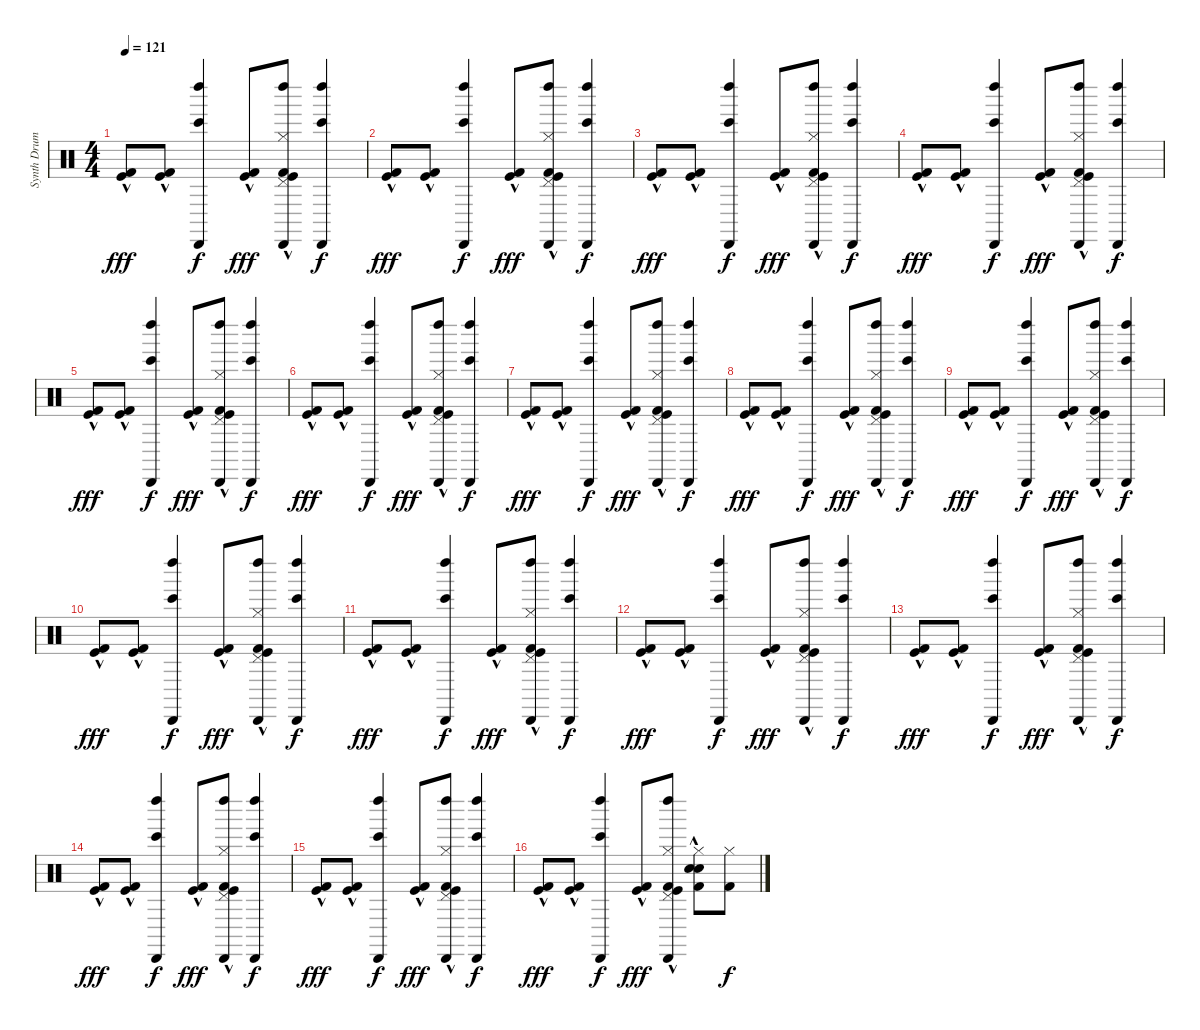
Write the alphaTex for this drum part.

\track ("Synth Drums" "Synth Drum") {instrument percussion}
\staff {score}
\articulation defaults
\ts (4 4)
\tempo 121
\clef neutral
\ks c
("Kick (hit)"{hac} "Kick (hit) 2"{hac}).8{dy fff} ("Kick (hit)"{hac} "Kick (hit) 2"{hac}).8 ("Bongo High (hit)" "Left Maraca (hit)" "Cabasa (hit)").4{dy f} ("Kick (hit)"{hac} "Kick (hit) 2"{hac}).8{dy fff} ("Hi-Hat (closed)" "Pedal Hi-Hat (hit)" "Left Maraca (hit)"{hac} "Cabasa (hit)"{hac} "Kick (hit)"{hac} "Kick (hit) 2"{hac}).8 ("Bongo High (hit)" "Left Maraca (hit)" "Cabasa (hit)").4{dy f} |
("Kick (hit)"{hac} "Kick (hit) 2"{hac}).8{dy fff} ("Kick (hit)"{hac} "Kick (hit) 2"{hac}).8 ("Bongo High (hit)" "Left Maraca (hit)" "Cabasa (hit)").4{dy f} ("Kick (hit)"{hac} "Kick (hit) 2"{hac}).8{dy fff} ("Hi-Hat (closed)" "Pedal Hi-Hat (hit)" "Left Maraca (hit)"{hac} "Cabasa (hit)"{hac} "Kick (hit)"{hac} "Kick (hit) 2"{hac}).8 ("Bongo High (hit)" "Left Maraca (hit)" "Cabasa (hit)").4{dy f} |
("Kick (hit)"{hac} "Kick (hit) 2"{hac}).8{dy fff} ("Kick (hit)"{hac} "Kick (hit) 2"{hac}).8 ("Bongo High (hit)" "Left Maraca (hit)" "Cabasa (hit)").4{dy f} ("Kick (hit)"{hac} "Kick (hit) 2"{hac}).8{dy fff} ("Hi-Hat (closed)" "Pedal Hi-Hat (hit)" "Left Maraca (hit)"{hac} "Cabasa (hit)"{hac} "Kick (hit)"{hac} "Kick (hit) 2"{hac}).8 ("Bongo High (hit)" "Left Maraca (hit)" "Cabasa (hit)").4{dy f} |
("Kick (hit)"{hac} "Kick (hit) 2"{hac}).8{dy fff} ("Kick (hit)"{hac} "Kick (hit) 2"{hac}).8 ("Bongo High (hit)" "Left Maraca (hit)" "Cabasa (hit)").4{dy f} ("Kick (hit)"{hac} "Kick (hit) 2"{hac}).8{dy fff} ("Hi-Hat (closed)" "Pedal Hi-Hat (hit)" "Left Maraca (hit)"{hac} "Cabasa (hit)"{hac} "Kick (hit)"{hac} "Kick (hit) 2"{hac}).8 ("Bongo High (hit)" "Left Maraca (hit)" "Cabasa (hit)").4{dy f} |
("Kick (hit)"{hac} "Kick (hit) 2"{hac}).8{dy fff} ("Kick (hit)"{hac} "Kick (hit) 2"{hac}).8 ("Bongo High (hit)" "Left Maraca (hit)" "Cabasa (hit)").4{dy f} ("Kick (hit)"{hac} "Kick (hit) 2"{hac}).8{dy fff} ("Hi-Hat (closed)" "Pedal Hi-Hat (hit)" "Left Maraca (hit)"{hac} "Cabasa (hit)"{hac} "Kick (hit)"{hac} "Kick (hit) 2"{hac}).8 ("Bongo High (hit)" "Left Maraca (hit)" "Cabasa (hit)").4{dy f} |
("Kick (hit)"{hac} "Kick (hit) 2"{hac}).8{dy fff} ("Kick (hit)"{hac} "Kick (hit) 2"{hac}).8 ("Bongo High (hit)" "Left Maraca (hit)" "Cabasa (hit)").4{dy f} ("Kick (hit)"{hac} "Kick (hit) 2"{hac}).8{dy fff} ("Hi-Hat (closed)" "Pedal Hi-Hat (hit)" "Left Maraca (hit)"{hac} "Cabasa (hit)"{hac} "Kick (hit)"{hac} "Kick (hit) 2"{hac}).8 ("Bongo High (hit)" "Left Maraca (hit)" "Cabasa (hit)").4{dy f} |
("Kick (hit)"{hac} "Kick (hit) 2"{hac}).8{dy fff} ("Kick (hit)"{hac} "Kick (hit) 2"{hac}).8 ("Bongo High (hit)" "Left Maraca (hit)" "Cabasa (hit)").4{dy f} ("Kick (hit)"{hac} "Kick (hit) 2"{hac}).8{dy fff} ("Hi-Hat (closed)" "Pedal Hi-Hat (hit)" "Left Maraca (hit)"{hac} "Cabasa (hit)"{hac} "Kick (hit)"{hac} "Kick (hit) 2"{hac}).8 ("Bongo High (hit)" "Left Maraca (hit)" "Cabasa (hit)").4{dy f} |
("Kick (hit)"{hac} "Kick (hit) 2"{hac}).8{dy fff} ("Kick (hit)"{hac} "Kick (hit) 2"{hac}).8 ("Bongo High (hit)" "Left Maraca (hit)" "Cabasa (hit)").4{dy f} ("Kick (hit)"{hac} "Kick (hit) 2"{hac}).8{dy fff} ("Hi-Hat (closed)" "Pedal Hi-Hat (hit)" "Left Maraca (hit)"{hac} "Cabasa (hit)"{hac} "Kick (hit)"{hac} "Kick (hit) 2"{hac}).8 ("Bongo High (hit)" "Left Maraca (hit)" "Cabasa (hit)").4{dy f} |
("Kick (hit)"{hac} "Kick (hit) 2"{hac}).8{dy fff} ("Kick (hit)"{hac} "Kick (hit) 2"{hac}).8 ("Bongo High (hit)" "Left Maraca (hit)" "Cabasa (hit)").4{dy f} ("Kick (hit)"{hac} "Kick (hit) 2"{hac}).8{dy fff} ("Hi-Hat (closed)" "Pedal Hi-Hat (hit)" "Left Maraca (hit)"{hac} "Cabasa (hit)"{hac} "Kick (hit)"{hac} "Kick (hit) 2"{hac}).8 ("Bongo High (hit)" "Left Maraca (hit)" "Cabasa (hit)").4{dy f} |
("Kick (hit)"{hac} "Kick (hit) 2"{hac}).8{dy fff} ("Kick (hit)"{hac} "Kick (hit) 2"{hac}).8 ("Bongo High (hit)" "Left Maraca (hit)" "Cabasa (hit)").4{dy f} ("Kick (hit)"{hac} "Kick (hit) 2"{hac}).8{dy fff} ("Hi-Hat (closed)" "Pedal Hi-Hat (hit)" "Left Maraca (hit)"{hac} "Cabasa (hit)"{hac} "Kick (hit)"{hac} "Kick (hit) 2"{hac}).8 ("Bongo High (hit)" "Left Maraca (hit)" "Cabasa (hit)").4{dy f} |
("Kick (hit)"{hac} "Kick (hit) 2"{hac}).8{dy fff} ("Kick (hit)"{hac} "Kick (hit) 2"{hac}).8 ("Bongo High (hit)" "Left Maraca (hit)" "Cabasa (hit)").4{dy f} ("Kick (hit)"{hac} "Kick (hit) 2"{hac}).8{dy fff} ("Hi-Hat (closed)" "Pedal Hi-Hat (hit)" "Left Maraca (hit)"{hac} "Cabasa (hit)"{hac} "Kick (hit)"{hac} "Kick (hit) 2"{hac}).8 ("Bongo High (hit)" "Left Maraca (hit)" "Cabasa (hit)").4{dy f} |
("Kick (hit)"{hac} "Kick (hit) 2"{hac}).8{dy fff} ("Kick (hit)"{hac} "Kick (hit) 2"{hac}).8 ("Bongo High (hit)" "Left Maraca (hit)" "Cabasa (hit)").4{dy f} ("Kick (hit)"{hac} "Kick (hit) 2"{hac}).8{dy fff} ("Hi-Hat (closed)" "Pedal Hi-Hat (hit)" "Left Maraca (hit)"{hac} "Cabasa (hit)"{hac} "Kick (hit)"{hac} "Kick (hit) 2"{hac}).8 ("Bongo High (hit)" "Left Maraca (hit)" "Cabasa (hit)").4{dy f} |
("Kick (hit)"{hac} "Kick (hit) 2"{hac}).8{dy fff} ("Kick (hit)"{hac} "Kick (hit) 2"{hac}).8 ("Bongo High (hit)" "Left Maraca (hit)" "Cabasa (hit)").4{dy f} ("Kick (hit)"{hac} "Kick (hit) 2"{hac}).8{dy fff} ("Hi-Hat (closed)" "Pedal Hi-Hat (hit)" "Left Maraca (hit)"{hac} "Cabasa (hit)"{hac} "Kick (hit)"{hac} "Kick (hit) 2"{hac}).8 ("Bongo High (hit)" "Left Maraca (hit)" "Cabasa (hit)").4{dy f} |
("Kick (hit)"{hac} "Kick (hit) 2"{hac}).8{dy fff} ("Kick (hit)"{hac} "Kick (hit) 2"{hac}).8 ("Bongo High (hit)" "Left Maraca (hit)" "Cabasa (hit)").4{dy f} ("Kick (hit)"{hac} "Kick (hit) 2"{hac}).8{dy fff} ("Hi-Hat (closed)" "Pedal Hi-Hat (hit)" "Left Maraca (hit)"{hac} "Cabasa (hit)"{hac} "Kick (hit)"{hac} "Kick (hit) 2"{hac}).8 ("Bongo High (hit)" "Left Maraca (hit)" "Cabasa (hit)").4{dy f} |
("Kick (hit)"{hac} "Kick (hit) 2"{hac}).8{dy fff} ("Kick (hit)"{hac} "Kick (hit) 2"{hac}).8 ("Bongo High (hit)" "Left Maraca (hit)" "Cabasa (hit)").4{dy f} ("Kick (hit)"{hac} "Kick (hit) 2"{hac}).8{dy fff} ("Hi-Hat (closed)" "Pedal Hi-Hat (hit)" "Left Maraca (hit)"{hac} "Cabasa (hit)"{hac} "Kick (hit)"{hac} "Kick (hit) 2"{hac}).8 ("Bongo High (hit)" "Left Maraca (hit)" "Cabasa (hit)").4{dy f} |
("Kick (hit)"{hac} "Kick (hit) 2"{hac}).8{dy fff} ("Kick (hit)"{hac} "Kick (hit) 2"{hac}).8 ("Bongo High (hit)" "Left Maraca (hit)" "Cabasa (hit)").4{dy f} ("Kick (hit)"{hac} "Kick (hit) 2"{hac}).8{dy fff} ("Hi-Hat (closed)" "Pedal Hi-Hat (hit)" "Left Maraca (hit)"{hac} "Cabasa (hit)"{hac} "Kick (hit)"{hac} "Kick (hit) 2"{hac}).8 ("Hi-Hat (closed)" "Electric Snare (hit)"{hac} "Snare (hit) 2"{hac} "Kick (hit) 2").8 ("Hi-Hat (closed)" "Kick (hit) 2").8{dy f}
